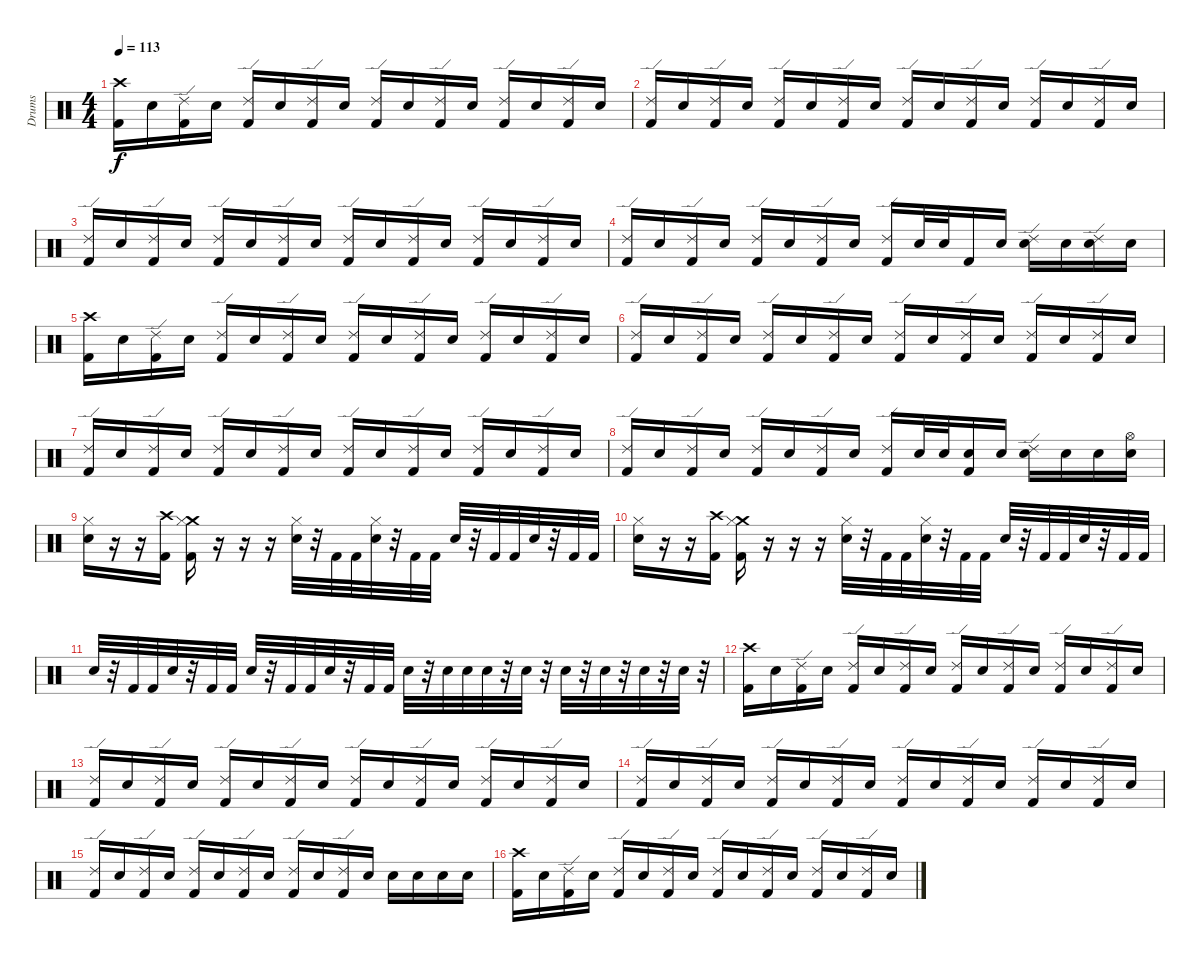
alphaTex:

\track ("Drums" "Drums") {instrument percussion}
\staff {score}
\articulation defaults
\ts (4 4)
\tempo 113
\clef neutral
\ks c
("Kick (hit) 2" "Crash high (hit)").16{dy f} "Electric Snare (hit)".16 ("Kick (hit) 2" "Ride (edge) 2").16 "Electric Snare (hit)".16 ("Kick (hit) 2" "Ride (edge) 2").16 "Electric Snare (hit)".16 ("Kick (hit) 2" "Ride (edge) 2").16 "Electric Snare (hit)".16 ("Kick (hit) 2" "Ride (edge) 2").16 "Electric Snare (hit)".16 ("Kick (hit) 2" "Ride (edge) 2").16 "Electric Snare (hit)".16 ("Kick (hit) 2" "Ride (edge) 2").16 "Electric Snare (hit)".16 ("Kick (hit) 2" "Ride (edge) 2").16 "Electric Snare (hit)".16 |
("Kick (hit) 2" "Ride (edge) 2").16 "Electric Snare (hit)".16 ("Kick (hit) 2" "Ride (edge) 2").16 "Electric Snare (hit)".16 ("Kick (hit) 2" "Ride (edge) 2").16 "Electric Snare (hit)".16 ("Kick (hit) 2" "Ride (edge) 2").16 "Electric Snare (hit)".16 ("Kick (hit) 2" "Ride (edge) 2").16 "Electric Snare (hit)".16 ("Kick (hit) 2" "Ride (edge) 2").16 "Electric Snare (hit)".16 ("Kick (hit) 2" "Ride (edge) 2").16 "Electric Snare (hit)".16 ("Kick (hit) 2" "Ride (edge) 2").16 "Electric Snare (hit)".16 |
("Kick (hit) 2" "Ride (edge) 2").16 "Electric Snare (hit)".16 ("Kick (hit) 2" "Ride (edge) 2").16 "Electric Snare (hit)".16 ("Kick (hit) 2" "Ride (edge) 2").16 "Electric Snare (hit)".16 ("Kick (hit) 2" "Ride (edge) 2").16 "Electric Snare (hit)".16 ("Kick (hit) 2" "Ride (edge) 2").16 "Electric Snare (hit)".16 ("Kick (hit) 2" "Ride (edge) 2").16 "Electric Snare (hit)".16 ("Kick (hit) 2" "Ride (edge) 2").16 "Electric Snare (hit)".16 ("Kick (hit) 2" "Ride (edge) 2").16 "Electric Snare (hit)".16 |
("Kick (hit) 2" "Ride (edge) 2").16 "Electric Snare (hit)".16 ("Kick (hit) 2" "Ride (edge) 2").16 "Electric Snare (hit)".16 ("Kick (hit) 2" "Ride (edge) 2").16 "Electric Snare (hit)".16 ("Kick (hit) 2" "Ride (edge) 2").16 "Electric Snare (hit)".16 ("Kick (hit) 2" "Ride (edge) 2").16 "Electric Snare (hit)".32 "Electric Snare (hit)".32 "Kick (hit) 2".16 "Electric Snare (hit)".16 ("Electric Snare (hit)" "Ride (edge) 2").16 "Electric Snare (hit)".16 ("Electric Snare (hit)" "Ride (edge) 2").16 "Electric Snare (hit)".16 |
("Kick (hit) 2" "Crash high (hit)").16 "Electric Snare (hit)".16 ("Kick (hit) 2" "Ride (edge) 2").16 "Electric Snare (hit)".16 ("Kick (hit) 2" "Ride (edge) 2").16 "Electric Snare (hit)".16 ("Kick (hit) 2" "Ride (edge) 2").16 "Electric Snare (hit)".16 ("Kick (hit) 2" "Ride (edge) 2").16 "Electric Snare (hit)".16 ("Kick (hit) 2" "Ride (edge) 2").16 "Electric Snare (hit)".16 ("Kick (hit) 2" "Ride (edge) 2").16 "Electric Snare (hit)".16 ("Kick (hit) 2" "Ride (edge) 2").16 "Electric Snare (hit)".16 |
("Kick (hit) 2" "Ride (edge) 2").16 "Electric Snare (hit)".16 ("Kick (hit) 2" "Ride (edge) 2").16 "Electric Snare (hit)".16 ("Kick (hit) 2" "Ride (edge) 2").16 "Electric Snare (hit)".16 ("Kick (hit) 2" "Ride (edge) 2").16 "Electric Snare (hit)".16 ("Kick (hit) 2" "Ride (edge) 2").16 "Electric Snare (hit)".16 ("Kick (hit) 2" "Ride (edge) 2").16 "Electric Snare (hit)".16 ("Kick (hit) 2" "Ride (edge) 2").16 "Electric Snare (hit)".16 ("Kick (hit) 2" "Ride (edge) 2").16 "Electric Snare (hit)".16 |
("Kick (hit) 2" "Ride (edge) 2").16 "Electric Snare (hit)".16 ("Kick (hit) 2" "Ride (edge) 2").16 "Electric Snare (hit)".16 ("Kick (hit) 2" "Ride (edge) 2").16 "Electric Snare (hit)".16 ("Kick (hit) 2" "Ride (edge) 2").16 "Electric Snare (hit)".16 ("Kick (hit) 2" "Ride (edge) 2").16 "Electric Snare (hit)".16 ("Kick (hit) 2" "Ride (edge) 2").16 "Electric Snare (hit)".16 ("Kick (hit) 2" "Ride (edge) 2").16 "Electric Snare (hit)".16 ("Kick (hit) 2" "Ride (edge) 2").16 "Electric Snare (hit)".16 |
("Kick (hit) 2" "Ride (edge) 2").16 "Electric Snare (hit)".16 ("Kick (hit) 2" "Ride (edge) 2").16 "Electric Snare (hit)".16 ("Kick (hit) 2" "Ride (edge) 2").16 "Electric Snare (hit)".16 ("Kick (hit) 2" "Ride (edge) 2").16 "Electric Snare (hit)".16 ("Kick (hit) 2" "Ride (edge) 2").16 "Electric Snare (hit)".32 "Electric Snare (hit)".32 ("Kick (hit) 2" "Electric Snare (hit)").16 "Electric Snare (hit)".16 ("Electric Snare (hit)" "Ride (edge) 2").16 "Electric Snare (hit)".16 "Electric Snare (hit)".16 ("Electric Snare (hit)" "Hi-Hat (open)").16 |
("Electric Snare (hit)" "Hi-Hat (closed)").16 r.16 r.16 ("Kick (hit) 2" "Crash high (hit)").16 ("Kick (hit) 2" "Crash medium (hit)" "Hi-Hat (closed)").16 r.16 r.16 r.16 ("Electric Snare (hit)" "Hi-Hat (closed)").32 r.32 "Kick (hit) 2".32 "Kick (hit) 2".32 ("Electric Snare (hit)" "Hi-Hat (closed)").32 r.32 "Kick (hit) 2".32 "Kick (hit) 2".32 "Electric Snare (hit)".32 r.32 "Kick (hit) 2".32 "Kick (hit) 2".32 "Electric Snare (hit)".32 r.32 "Kick (hit) 2".32 "Kick (hit) 2".32 |
("Electric Snare (hit)" "Hi-Hat (closed)").16 r.16 r.16 ("Kick (hit) 2" "Crash high (hit)").16 ("Kick (hit) 2" "Crash medium (hit)" "Hi-Hat (closed)").16 r.16 r.16 r.16 ("Electric Snare (hit)" "Hi-Hat (closed)").32 r.32 "Kick (hit) 2".32 "Kick (hit) 2".32 ("Electric Snare (hit)" "Hi-Hat (closed)").32 r.32 "Kick (hit) 2".32 "Kick (hit) 2".32 "Electric Snare (hit)".32 r.32 "Kick (hit) 2".32 "Kick (hit) 2".32 "Electric Snare (hit)".32 r.32 "Kick (hit) 2".32 "Kick (hit) 2".32 |
"Electric Snare (hit)".32 r.32 "Kick (hit) 2".32 "Kick (hit) 2".32 "Electric Snare (hit)".32 r.32 "Kick (hit) 2".32 "Kick (hit) 2".32 "Electric Snare (hit)".32 r.32 "Kick (hit) 2".32 "Kick (hit) 2".32 "Electric Snare (hit)".32 r.32 "Kick (hit) 2".32 "Kick (hit) 2".32 "Electric Snare (hit)".32 r.32 "Electric Snare (hit)".32 "Electric Snare (hit)".32 "Electric Snare (hit)".32 r.32 "Electric Snare (hit)".32 r.32 "Electric Snare (hit)".32 r.32 "Electric Snare (hit)".32 r.32 "Electric Snare (hit)".32 r.32 "Electric Snare (hit)".32 r.32 |
("Kick (hit) 2" "Crash high (hit)").16 "Electric Snare (hit)".16 ("Kick (hit) 2" "Ride (edge) 2").16 "Electric Snare (hit)".16 ("Kick (hit) 2" "Ride (edge) 2").16 "Electric Snare (hit)".16 ("Kick (hit) 2" "Ride (edge) 2").16 "Electric Snare (hit)".16 ("Kick (hit) 2" "Ride (edge) 2").16 "Electric Snare (hit)".16 ("Kick (hit) 2" "Ride (edge) 2").16 "Electric Snare (hit)".16 ("Kick (hit) 2" "Ride (edge) 2").16 "Electric Snare (hit)".16 ("Kick (hit) 2" "Ride (edge) 2").16 "Electric Snare (hit)".16 |
("Kick (hit) 2" "Ride (edge) 2").16 "Electric Snare (hit)".16 ("Kick (hit) 2" "Ride (edge) 2").16 "Electric Snare (hit)".16 ("Kick (hit) 2" "Ride (edge) 2").16 "Electric Snare (hit)".16 ("Kick (hit) 2" "Ride (edge) 2").16 "Electric Snare (hit)".16 ("Kick (hit) 2" "Ride (edge) 2").16 "Electric Snare (hit)".16 ("Kick (hit) 2" "Ride (edge) 2").16 "Electric Snare (hit)".16 ("Kick (hit) 2" "Ride (edge) 2").16 "Electric Snare (hit)".16 ("Kick (hit) 2" "Ride (edge) 2").16 "Electric Snare (hit)".16 |
("Kick (hit) 2" "Ride (edge) 2").16 "Electric Snare (hit)".16 ("Kick (hit) 2" "Ride (edge) 2").16 "Electric Snare (hit)".16 ("Kick (hit) 2" "Ride (edge) 2").16 "Electric Snare (hit)".16 ("Kick (hit) 2" "Ride (edge) 2").16 "Electric Snare (hit)".16 ("Kick (hit) 2" "Ride (edge) 2").16 "Electric Snare (hit)".16 ("Kick (hit) 2" "Ride (edge) 2").16 "Electric Snare (hit)".16 ("Kick (hit) 2" "Ride (edge) 2").16 "Electric Snare (hit)".16 ("Kick (hit) 2" "Ride (edge) 2").16 "Electric Snare (hit)".16 |
("Kick (hit) 2" "Ride (edge) 2").16 "Electric Snare (hit)".16 ("Kick (hit) 2" "Ride (edge) 2").16 "Electric Snare (hit)".16 ("Kick (hit) 2" "Ride (edge) 2").16 "Electric Snare (hit)".16 ("Kick (hit) 2" "Ride (edge) 2").16 "Electric Snare (hit)".16 ("Kick (hit) 2" "Ride (edge) 2").16 "Electric Snare (hit)".16 ("Kick (hit) 2" "Ride (edge) 2").16 "Electric Snare (hit)".16 "Electric Snare (hit)".16 "Electric Snare (hit)".16 "Electric Snare (hit)".16 "Electric Snare (hit)".16 |
("Kick (hit) 2" "Crash high (hit)").16 "Electric Snare (hit)".16 ("Kick (hit) 2" "Ride (edge) 2").16 "Electric Snare (hit)".16 ("Kick (hit) 2" "Ride (edge) 2").16 "Electric Snare (hit)".16 ("Kick (hit) 2" "Ride (edge) 2").16 "Electric Snare (hit)".16 ("Kick (hit) 2" "Ride (edge) 2").16 "Electric Snare (hit)".16 ("Kick (hit) 2" "Ride (edge) 2").16 "Electric Snare (hit)".16 ("Kick (hit) 2" "Ride (edge) 2").16 "Electric Snare (hit)".16 ("Kick (hit) 2" "Ride (edge) 2").16 "Electric Snare (hit)".16
